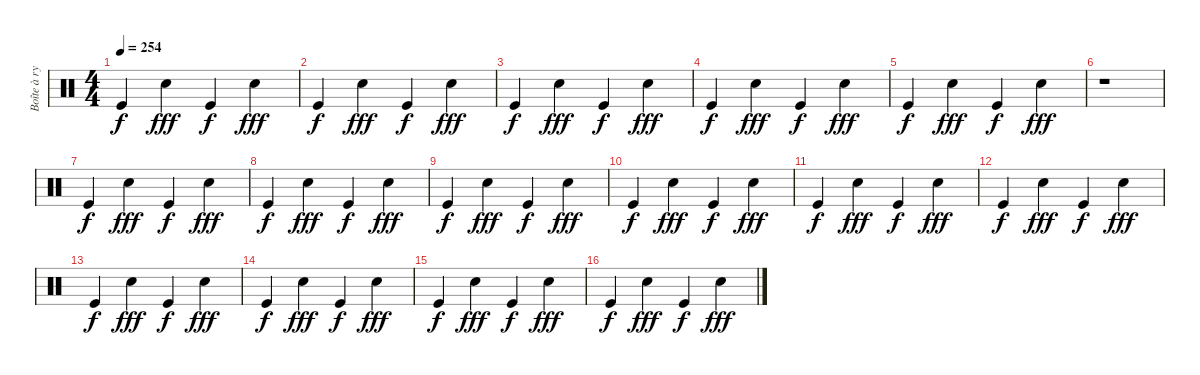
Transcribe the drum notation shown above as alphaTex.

\track ("Boîte à rytmes" "Boîte à ry") {instrument percussion}
\staff {score}
\articulation defaults
\ts (4 4)
\tempo 254
\clef neutral
\ks c "Kick (hit)".4{dy f} "Snare (hit) 2".4{dy fff} "Kick (hit)".4{dy f} "Snare (hit) 2".4{dy fff}
|
"Kick (hit)".4{dy f} "Snare (hit) 2".4{dy fff} "Kick (hit)".4{dy f} "Snare (hit) 2".4{dy fff} |
"Kick (hit)".4{dy f} "Snare (hit) 2".4{dy fff} "Kick (hit)".4{dy f} "Snare (hit) 2".4{dy fff} |
"Kick (hit)".4{dy f} "Snare (hit) 2".4{dy fff} "Kick (hit)".4{dy f} "Snare (hit) 2".4{dy fff} |
"Kick (hit)".4{dy f} "Snare (hit) 2".4{dy fff} "Kick (hit)".4{dy f} "Snare (hit) 2".4{dy fff} |
r.1 |
"Kick (hit)".4{dy f} "Snare (hit) 2".4{dy fff} "Kick (hit)".4{dy f} "Snare (hit) 2".4{dy fff} |
"Kick (hit)".4{dy f} "Snare (hit) 2".4{dy fff} "Kick (hit)".4{dy f} "Snare (hit) 2".4{dy fff} |
"Kick (hit)".4{dy f} "Snare (hit) 2".4{dy fff} "Kick (hit)".4{dy f} "Snare (hit) 2".4{dy fff} |
"Kick (hit)".4{dy f} "Snare (hit) 2".4{dy fff} "Kick (hit)".4{dy f} "Snare (hit) 2".4{dy fff} |
"Kick (hit)".4{dy f} "Snare (hit) 2".4{dy fff} "Kick (hit)".4{dy f} "Snare (hit) 2".4{dy fff} |
"Kick (hit)".4{dy f} "Snare (hit) 2".4{dy fff} "Kick (hit)".4{dy f} "Snare (hit) 2".4{dy fff} |
"Kick (hit)".4{dy f} "Snare (hit) 2".4{dy fff} "Kick (hit)".4{dy f} "Snare (hit) 2".4{dy fff} |
"Kick (hit)".4{dy f} "Snare (hit) 2".4{dy fff} "Kick (hit)".4{dy f} "Snare (hit) 2".4{dy fff} |
"Kick (hit)".4{dy f} "Snare (hit) 2".4{dy fff} "Kick (hit)".4{dy f} "Snare (hit) 2".4{dy fff} |
"Kick (hit)".4{dy f} "Snare (hit) 2".4{dy fff} "Kick (hit)".4{dy f} "Snare (hit) 2".4{dy fff}
